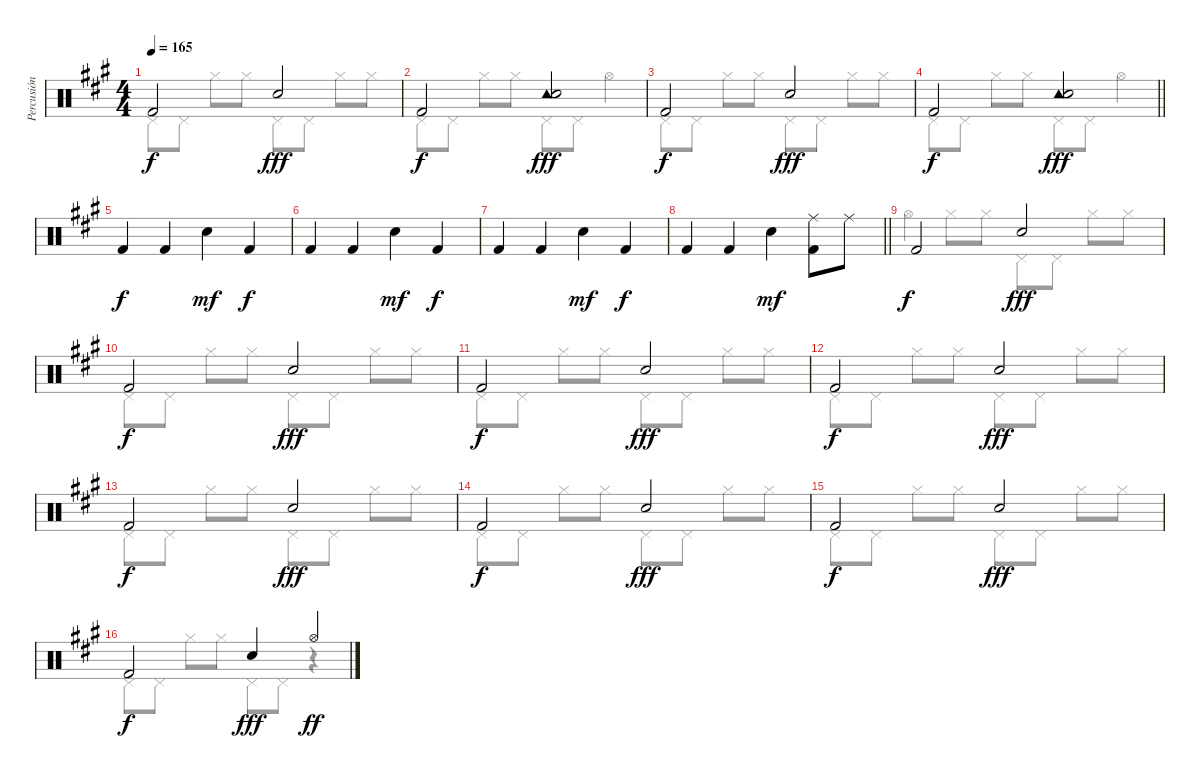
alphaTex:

\track ("Percusión" "Percusión") {instrument percussion}
\staff {score}
\articulation defaults
\voice
\ts (4 4)
\tempo 165
\clef neutral
\ks a "Kick (hit) 2".2{dy f} "Snare (hit) 2".2{dy fff}
|
"Kick (hit) 2".2{dy f} ("Tambourine (hit)" "Snare (hit) 2").2{dy fff} |
"Kick (hit) 2".2{dy f} "Snare (hit) 2".2{dy fff} |
\barLineRight lightlight "Kick (hit) 2".2{dy f}
("Tambourine (hit)" "Snare (hit) 2").2{dy fff} |
"Kick (hit) 2".4{dy f} "Kick (hit) 2".4 "Snare (hit) 2".4{dy mf} "Kick (hit) 2".4{dy f} |
"Kick (hit) 2".4 "Kick (hit) 2".4 "Snare (hit) 2".4{dy mf} "Kick (hit) 2".4{dy f} |
"Kick (hit) 2".4 "Kick (hit) 2".4 "Snare (hit) 2".4{dy mf} "Kick (hit) 2".4{dy f} |
\barLineRight lightlight "Kick (hit) 2".4 "Kick (hit) 2".4 "Snare (hit) 2".4{dy mf}
("Ride (middle)" "Kick (hit) 2").8 "Ride (middle)".8 |
"Kick (hit) 2".2{dy f} "Snare (hit) 2".2{dy fff} |
"Kick (hit) 2".2{dy f} "Snare (hit) 2".2{dy fff} |
"Kick (hit) 2".2{dy f} "Snare (hit) 2".2{dy fff} |
"Kick (hit) 2".2{dy f} "Snare (hit) 2".2{dy fff} |
"Kick (hit) 2".2{dy f} "Snare (hit) 2".2{dy fff} |
"Kick (hit) 2".2{dy f} "Snare (hit) 2".2{dy fff} |
"Kick (hit) 2".2{dy f} "Snare (hit) 2".2{dy fff} |
"Kick (hit) 2".2{dy f} "Snare (hit) 2".4{dy fff} "Hi-Hat (open)".4{dy ff}
\voice
\clef neutral
\ottava regular
\simile none
\ks a "Pedal Hi-Hat (hit)".8{dy f} "Pedal Hi-Hat (hit)".8 "Hi-Hat (closed)".8 "Hi-Hat (closed)".8 "Pedal Hi-Hat (hit)".8 "Pedal Hi-Hat (hit)".8 "Hi-Hat (closed)".8 "Hi-Hat (closed)".8
|
"Pedal Hi-Hat (hit)".8 "Pedal Hi-Hat (hit)".8 "Hi-Hat (closed)".8 "Hi-Hat (closed)".8 "Pedal Hi-Hat (hit)".8 "Pedal Hi-Hat (hit)".8 "Hi-Hat (open)".4 |
"Pedal Hi-Hat (hit)".8 "Pedal Hi-Hat (hit)".8 "Hi-Hat (closed)".8 "Hi-Hat (closed)".8 "Pedal Hi-Hat (hit)".8 "Pedal Hi-Hat (hit)".8 "Hi-Hat (closed)".8 "Hi-Hat (closed)".8 |
\barLineRight lightlight "Pedal Hi-Hat (hit)".8 "Pedal Hi-Hat (hit)".8 "Hi-Hat (closed)".8 "Hi-Hat (closed)".8 "Pedal Hi-Hat (hit)".8 "Pedal Hi-Hat (hit)".8 "Hi-Hat (open)".4
|
|
|
|
\barLineRight lightlight
|
"Hi-Hat (open)".4 "Hi-Hat (closed)".8 "Hi-Hat (closed)".8 "Pedal Hi-Hat (hit)".8 "Pedal Hi-Hat (hit)".8 "Hi-Hat (closed)".8 "Hi-Hat (closed)".8 |
"Pedal Hi-Hat (hit)".8 "Pedal Hi-Hat (hit)".8 "Hi-Hat (closed)".8 "Hi-Hat (closed)".8 "Pedal Hi-Hat (hit)".8 "Pedal Hi-Hat (hit)".8 "Hi-Hat (closed)".8 "Hi-Hat (closed)".8 |
"Pedal Hi-Hat (hit)".8 "Pedal Hi-Hat (hit)".8 "Hi-Hat (closed)".8 "Hi-Hat (closed)".8 "Pedal Hi-Hat (hit)".8 "Pedal Hi-Hat (hit)".8 "Hi-Hat (closed)".8 "Hi-Hat (closed)".8 |
"Pedal Hi-Hat (hit)".8 "Pedal Hi-Hat (hit)".8 "Hi-Hat (closed)".8 "Hi-Hat (closed)".8 "Pedal Hi-Hat (hit)".8 "Pedal Hi-Hat (hit)".8 "Hi-Hat (closed)".8 "Hi-Hat (closed)".8 |
"Pedal Hi-Hat (hit)".8 "Pedal Hi-Hat (hit)".8 "Hi-Hat (closed)".8 "Hi-Hat (closed)".8 "Pedal Hi-Hat (hit)".8 "Pedal Hi-Hat (hit)".8 "Hi-Hat (closed)".8 "Hi-Hat (closed)".8 |
"Pedal Hi-Hat (hit)".8 "Pedal Hi-Hat (hit)".8 "Hi-Hat (closed)".8 "Hi-Hat (closed)".8 "Pedal Hi-Hat (hit)".8 "Pedal Hi-Hat (hit)".8 "Hi-Hat (closed)".8 "Hi-Hat (closed)".8 |
"Pedal Hi-Hat (hit)".8 "Pedal Hi-Hat (hit)".8 "Hi-Hat (closed)".8 "Hi-Hat (closed)".8 "Pedal Hi-Hat (hit)".8 "Pedal Hi-Hat (hit)".8 "Hi-Hat (closed)".8 "Hi-Hat (closed)".8 |
"Pedal Hi-Hat (hit)".8 "Pedal Hi-Hat (hit)".8 "Hi-Hat (closed)".8 "Hi-Hat (closed)".8 "Pedal Hi-Hat (hit)".8 "Pedal Hi-Hat (hit)".8 r.4
